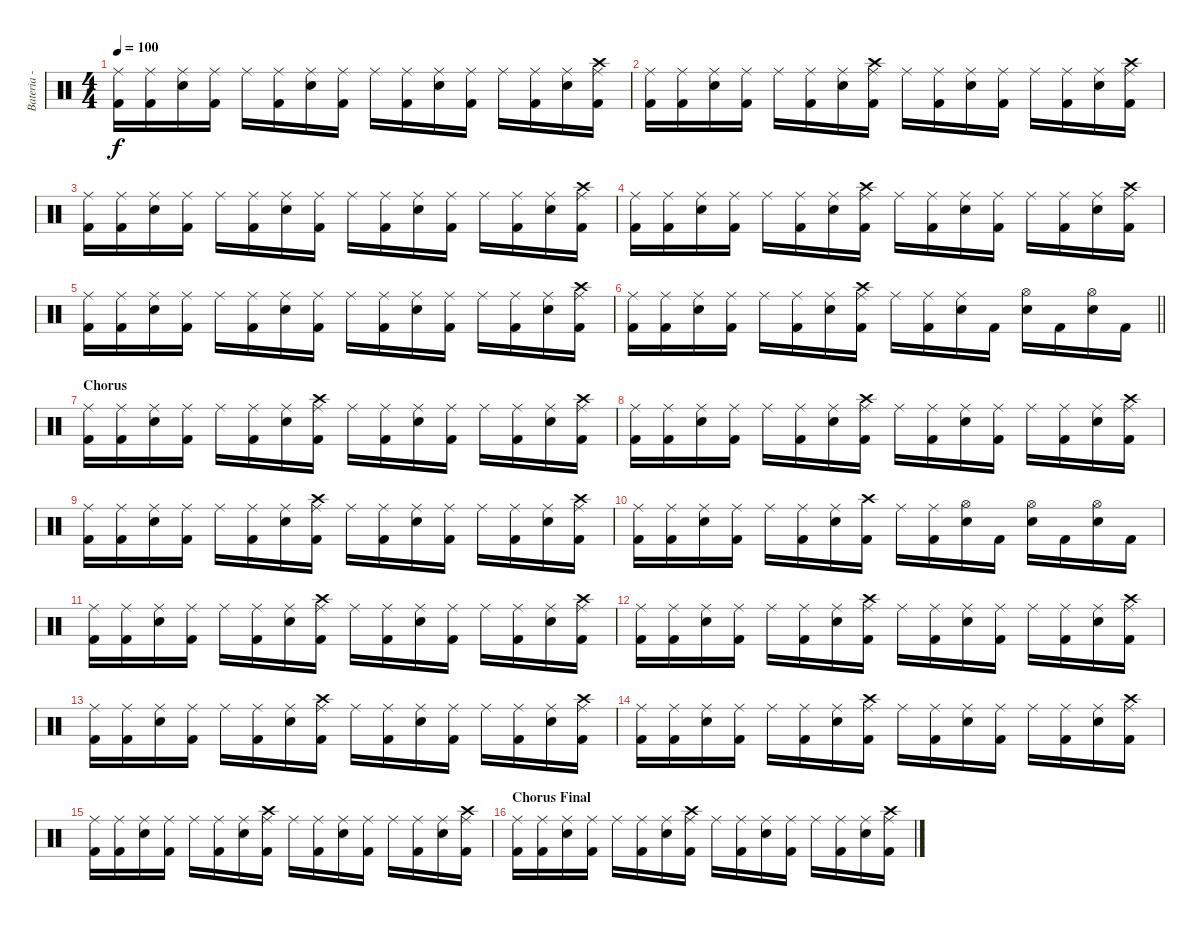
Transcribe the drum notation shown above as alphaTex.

\track ("Bateria - Frederik Larzon" "Bateria - ") {instrument percussion}
\staff {score}
\articulation defaults
\ts (4 4)
\tempo 100
\clef neutral
\ks c
("Kick (hit) 2" "Ride (middle)").16{dy f} ("Kick (hit) 2" "Ride (middle)").16 ("Snare (hit) 2" "Ride (middle)").16 ("Kick (hit) 2" "Ride (middle)").16 "Ride (middle)".16 ("Kick (hit) 2" "Ride (middle)").16 ("Snare (hit) 2" "Ride (middle)").16 ("Kick (hit) 2" "Ride (middle)").16 "Ride (middle)".16 ("Kick (hit) 2" "Ride (middle)").16 ("Snare (hit) 2" "Ride (middle)").16 ("Kick (hit) 2" "Ride (middle)").16 "Ride (middle)".16 ("Kick (hit) 2" "Ride (middle)").16 ("Snare (hit) 2" "Ride (middle)").16 ("Kick (hit) 2" "Crash high (hit)" "Ride (middle)").16 |
("Kick (hit) 2" "Ride (middle)").16 ("Kick (hit) 2" "Ride (middle)").16 ("Snare (hit) 2" "Ride (middle)").16 ("Kick (hit) 2" "Ride (middle)").16 "Ride (middle)".16 ("Kick (hit) 2" "Ride (middle)").16 ("Snare (hit) 2" "Ride (middle)").16 ("Kick (hit) 2" "Crash high (hit)" "Ride (middle)").16 "Ride (middle)".16 ("Kick (hit) 2" "Ride (middle)").16 ("Snare (hit) 2" "Ride (middle)").16 ("Kick (hit) 2" "Ride (middle)").16 "Ride (middle)".16 ("Kick (hit) 2" "Ride (middle)").16 ("Snare (hit) 2" "Ride (middle)").16 ("Kick (hit) 2" "Crash high (hit)" "Ride (middle)").16 |
("Kick (hit) 2" "Ride (middle)").16 ("Kick (hit) 2" "Ride (middle)").16 ("Snare (hit) 2" "Ride (middle)").16 ("Kick (hit) 2" "Ride (middle)").16 "Ride (middle)".16 ("Kick (hit) 2" "Ride (middle)").16 ("Snare (hit) 2" "Ride (middle)").16 ("Kick (hit) 2" "Ride (middle)").16 "Ride (middle)".16 ("Kick (hit) 2" "Ride (middle)").16 ("Snare (hit) 2" "Ride (middle)").16 ("Kick (hit) 2" "Ride (middle)").16 "Ride (middle)".16 ("Kick (hit) 2" "Ride (middle)").16 ("Snare (hit) 2" "Ride (middle)").16 ("Kick (hit) 2" "Crash high (hit)" "Ride (middle)").16 |
("Kick (hit) 2" "Ride (middle)").16 ("Kick (hit) 2" "Ride (middle)").16 ("Snare (hit) 2" "Ride (middle)").16 ("Kick (hit) 2" "Ride (middle)").16 "Ride (middle)".16 ("Kick (hit) 2" "Ride (middle)").16 ("Snare (hit) 2" "Ride (middle)").16 ("Kick (hit) 2" "Crash high (hit)" "Ride (middle)").16 "Ride (middle)".16 ("Kick (hit) 2" "Ride (middle)").16 ("Snare (hit) 2" "Ride (middle)").16 ("Kick (hit) 2" "Ride (middle)").16 "Ride (middle)".16 ("Kick (hit) 2" "Ride (middle)").16 ("Snare (hit) 2" "Ride (middle)").16 ("Kick (hit) 2" "Crash high (hit)" "Ride (middle)").16 |
("Kick (hit) 2" "Ride (middle)").16 ("Kick (hit) 2" "Ride (middle)").16 ("Snare (hit) 2" "Ride (middle)").16 ("Kick (hit) 2" "Ride (middle)").16 "Ride (middle)".16 ("Kick (hit) 2" "Ride (middle)").16 ("Snare (hit) 2" "Ride (middle)").16 ("Kick (hit) 2" "Ride (middle)").16 "Ride (middle)".16 ("Kick (hit) 2" "Ride (middle)").16 ("Snare (hit) 2" "Ride (middle)").16 ("Kick (hit) 2" "Ride (middle)").16 "Ride (middle)".16 ("Kick (hit) 2" "Ride (middle)").16 ("Snare (hit) 2" "Ride (middle)").16 ("Kick (hit) 2" "Crash high (hit)" "Ride (middle)").16 |
\barLineRight lightlight
("Kick (hit) 2" "Ride (middle)").16 ("Kick (hit) 2" "Ride (middle)").16 ("Snare (hit) 2" "Ride (middle)").16 ("Kick (hit) 2" "Ride (middle)").16 "Ride (middle)".16 ("Kick (hit) 2" "Ride (middle)").16 ("Snare (hit) 2" "Ride (middle)").16 ("Kick (hit) 2" "Crash high (hit)" "Ride (middle)").16 "Ride (middle)".16 ("Kick (hit) 2" "Ride (middle)").16 ("Snare (hit) 2" "Ride (middle)").16 "Kick (hit) 2".16 ("Snare (hit) 2" "Hi-Hat (open)").16 "Kick (hit) 2".16 ("Snare (hit) 2" "Hi-Hat (open)").16 "Kick (hit) 2".16 |
\section ("" "Chorus")
("Kick (hit) 2" "Ride (middle)").16 ("Kick (hit) 2" "Ride (middle)").16 ("Snare (hit) 2" "Ride (middle)").16 ("Kick (hit) 2" "Ride (middle)").16 "Ride (middle)".16 ("Kick (hit) 2" "Ride (middle)").16 ("Snare (hit) 2" "Ride (middle)").16 ("Kick (hit) 2" "Crash high (hit)" "Ride (middle)").16 "Ride (middle)".16 ("Kick (hit) 2" "Ride (middle)").16 ("Snare (hit) 2" "Ride (middle)").16 ("Kick (hit) 2" "Ride (middle)").16 "Ride (middle)".16 ("Kick (hit) 2" "Ride (middle)").16 ("Snare (hit) 2" "Ride (middle)").16 ("Kick (hit) 2" "Crash high (hit)" "Ride (middle)").16 |
("Kick (hit) 2" "Ride (middle)").16 ("Kick (hit) 2" "Ride (middle)").16 ("Snare (hit) 2" "Ride (middle)").16 ("Kick (hit) 2" "Ride (middle)").16 "Ride (middle)".16 ("Kick (hit) 2" "Ride (middle)").16 ("Snare (hit) 2" "Ride (middle)").16 ("Kick (hit) 2" "Crash high (hit)" "Ride (middle)").16 "Ride (middle)".16 ("Kick (hit) 2" "Ride (middle)").16 ("Snare (hit) 2" "Ride (middle)").16 ("Kick (hit) 2" "Ride (middle)").16 "Ride (middle)".16 ("Kick (hit) 2" "Ride (middle)").16 ("Snare (hit) 2" "Ride (middle)").16 ("Kick (hit) 2" "Crash high (hit)" "Ride (middle)").16 |
("Kick (hit) 2" "Ride (middle)").16 ("Kick (hit) 2" "Ride (middle)").16 ("Snare (hit) 2" "Ride (middle)").16 ("Kick (hit) 2" "Ride (middle)").16 "Ride (middle)".16 ("Kick (hit) 2" "Ride (middle)").16 ("Snare (hit) 2" "Ride (middle)").16 ("Kick (hit) 2" "Crash high (hit)" "Ride (middle)").16 "Ride (middle)".16 ("Kick (hit) 2" "Ride (middle)").16 ("Snare (hit) 2" "Ride (middle)").16 ("Kick (hit) 2" "Ride (middle)").16 "Ride (middle)".16 ("Kick (hit) 2" "Ride (middle)").16 ("Snare (hit) 2" "Ride (middle)").16 ("Kick (hit) 2" "Crash high (hit)" "Ride (middle)").16 |
("Kick (hit) 2" "Ride (middle)").16 ("Kick (hit) 2" "Ride (middle)").16 ("Snare (hit) 2" "Ride (middle)").16 ("Kick (hit) 2" "Ride (middle)").16 "Ride (middle)".16 ("Kick (hit) 2" "Ride (middle)").16 ("Snare (hit) 2" "Ride (middle)").16 ("Kick (hit) 2" "Crash high (hit)").16 "Ride (middle)".16 ("Kick (hit) 2" "Ride (middle)").16 ("Snare (hit) 2" "Hi-Hat (open)").16 "Kick (hit) 2".16 ("Snare (hit) 2" "Hi-Hat (open)").16 "Kick (hit) 2".16 ("Snare (hit) 2" "Hi-Hat (open)").16 "Kick (hit) 2".16 |
("Kick (hit) 2" "Ride (middle)").16 ("Kick (hit) 2" "Ride (middle)").16 ("Snare (hit) 2" "Ride (middle)").16 ("Kick (hit) 2" "Ride (middle)").16 "Ride (middle)".16 ("Kick (hit) 2" "Ride (middle)").16 ("Snare (hit) 2" "Ride (middle)").16 ("Kick (hit) 2" "Crash high (hit)" "Ride (middle)").16 "Ride (middle)".16 ("Kick (hit) 2" "Ride (middle)").16 ("Snare (hit) 2" "Ride (middle)").16 ("Kick (hit) 2" "Ride (middle)").16 "Ride (middle)".16 ("Kick (hit) 2" "Ride (middle)").16 ("Snare (hit) 2" "Ride (middle)").16 ("Kick (hit) 2" "Crash high (hit)" "Ride (middle)").16 |
("Kick (hit) 2" "Ride (middle)").16 ("Kick (hit) 2" "Ride (middle)").16 ("Snare (hit) 2" "Ride (middle)").16 ("Kick (hit) 2" "Ride (middle)").16 "Ride (middle)".16 ("Kick (hit) 2" "Ride (middle)").16 ("Snare (hit) 2" "Ride (middle)").16 ("Kick (hit) 2" "Crash high (hit)" "Ride (middle)").16 "Ride (middle)".16 ("Kick (hit) 2" "Ride (middle)").16 ("Snare (hit) 2" "Ride (middle)").16 ("Kick (hit) 2" "Ride (middle)").16 "Ride (middle)".16 ("Kick (hit) 2" "Ride (middle)").16 ("Snare (hit) 2" "Ride (middle)").16 ("Kick (hit) 2" "Crash high (hit)" "Ride (middle)").16 |
("Kick (hit) 2" "Ride (middle)").16 ("Kick (hit) 2" "Ride (middle)").16 ("Snare (hit) 2" "Ride (middle)").16 ("Kick (hit) 2" "Ride (middle)").16 "Ride (middle)".16 ("Kick (hit) 2" "Ride (middle)").16 ("Snare (hit) 2" "Ride (middle)").16 ("Kick (hit) 2" "Crash high (hit)" "Ride (middle)").16 "Ride (middle)".16 ("Kick (hit) 2" "Ride (middle)").16 ("Snare (hit) 2" "Ride (middle)").16 ("Kick (hit) 2" "Ride (middle)").16 "Ride (middle)".16 ("Kick (hit) 2" "Ride (middle)").16 ("Snare (hit) 2" "Ride (middle)").16 ("Kick (hit) 2" "Crash high (hit)" "Ride (middle)").16 |
("Kick (hit) 2" "Ride (middle)").16 ("Kick (hit) 2" "Ride (middle)").16 ("Snare (hit) 2" "Ride (middle)").16 ("Kick (hit) 2" "Ride (middle)").16 "Ride (middle)".16 ("Kick (hit) 2" "Ride (middle)").16 ("Snare (hit) 2" "Ride (middle)").16 ("Kick (hit) 2" "Crash high (hit)" "Ride (middle)").16 "Ride (middle)".16 ("Kick (hit) 2" "Ride (middle)").16 ("Snare (hit) 2" "Ride (middle)").16 ("Kick (hit) 2" "Ride (middle)").16 "Ride (middle)".16 ("Kick (hit) 2" "Ride (middle)").16 ("Snare (hit) 2" "Ride (middle)").16 ("Kick (hit) 2" "Crash high (hit)" "Ride (middle)").16 |
("Kick (hit) 2" "Ride (middle)").16 ("Kick (hit) 2" "Ride (middle)").16 ("Snare (hit) 2" "Ride (middle)").16 ("Kick (hit) 2" "Ride (middle)").16 "Ride (middle)".16 ("Kick (hit) 2" "Ride (middle)").16 ("Snare (hit) 2" "Ride (middle)").16 ("Kick (hit) 2" "Crash high (hit)" "Ride (middle)").16 "Ride (middle)".16 ("Kick (hit) 2" "Ride (middle)").16 ("Snare (hit) 2" "Ride (middle)").16 ("Kick (hit) 2" "Ride (middle)").16 "Ride (middle)".16 ("Kick (hit) 2" "Ride (middle)").16 ("Snare (hit) 2" "Ride (middle)").16 ("Kick (hit) 2" "Crash high (hit)" "Ride (middle)").16 |
\section ("" "Chorus Final")
("Kick (hit) 2" "Ride (middle)").16 ("Kick (hit) 2" "Ride (middle)").16 ("Snare (hit) 2" "Ride (middle)").16 ("Kick (hit) 2" "Ride (middle)").16 "Ride (middle)".16 ("Kick (hit) 2" "Ride (middle)").16 ("Snare (hit) 2" "Ride (middle)").16 ("Kick (hit) 2" "Crash high (hit)" "Ride (middle)").16 "Ride (middle)".16 ("Kick (hit) 2" "Ride (middle)").16 ("Snare (hit) 2" "Ride (middle)").16 ("Kick (hit) 2" "Ride (middle)").16 "Ride (middle)".16 ("Kick (hit) 2" "Ride (middle)").16 ("Snare (hit) 2" "Ride (middle)").16 ("Kick (hit) 2" "Crash high (hit)" "Ride (middle)").16
